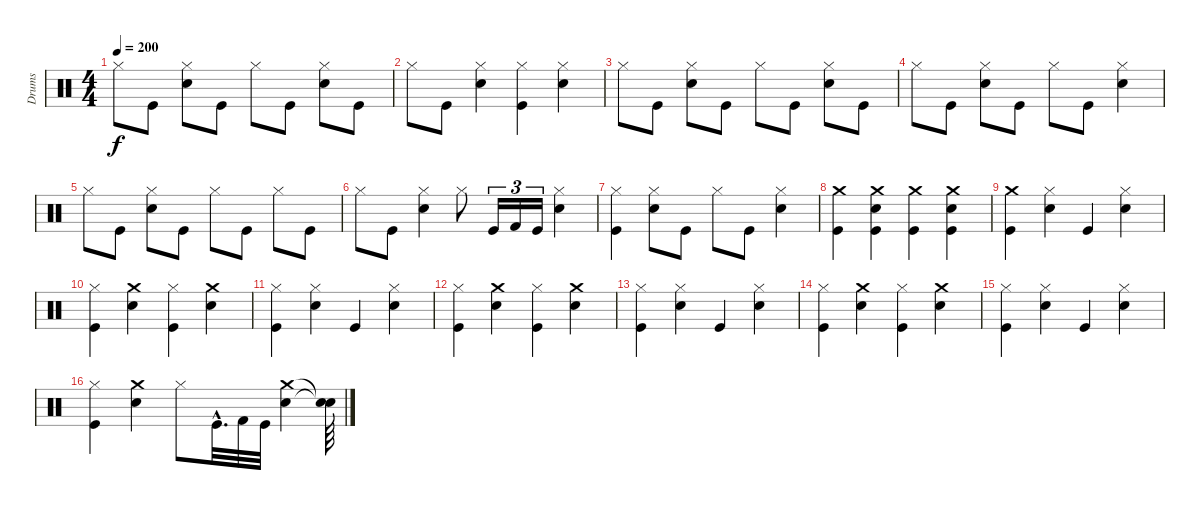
\track ("Drums" "Drums") {instrument percussion}
\staff {score}
\articulation defaults
\ts (4 4)
\tempo 200
\clef neutral
\ks c "Hi-Hat (closed)".8{dy f} "Kick (hit)".8
("Snare (hit) 2" "Hi-Hat (closed)").8 "Kick (hit)".8 "Hi-Hat (closed)".8 "Kick (hit)".8 ("Snare (hit) 2" "Hi-Hat (closed)").8 "Kick (hit)".8 |
"Hi-Hat (closed)".8 "Kick (hit)".8 ("Snare (hit) 2" "Hi-Hat (closed)").4 ("Hi-Hat (closed)" "Kick (hit)").4 ("Snare (hit) 2" "Hi-Hat (closed)").4 |
"Hi-Hat (closed)".8 "Kick (hit)".8 ("Snare (hit) 2" "Hi-Hat (closed)").8 "Kick (hit)".8 "Hi-Hat (closed)".8 "Kick (hit)".8 ("Snare (hit) 2" "Hi-Hat (closed)").8 "Kick (hit)".8 |
"Hi-Hat (closed)".8 "Kick (hit)".8 ("Snare (hit) 2" "Hi-Hat (closed)").8 "Kick (hit)".8 "Hi-Hat (closed)".8 "Kick (hit)".8 ("Snare (hit) 2" "Hi-Hat (closed)").4 |
"Hi-Hat (closed)".8 "Kick (hit)".8 ("Snare (hit) 2" "Hi-Hat (closed)").8 "Kick (hit)".8 "Hi-Hat (closed)".8 "Kick (hit)".8 "Hi-Hat (closed)".8 "Kick (hit)".8 |
"Hi-Hat (closed)".8 "Kick (hit)".8 ("Snare (hit) 2" "Hi-Hat (closed)").4 "Hi-Hat (closed)".8 "Kick (hit)".16{tu (3 2)} "Kick (hit) 2".16{tu (3 2)} "Kick (hit)".16{tu (3 2)} ("Snare (hit) 2" "Hi-Hat (closed)").4 |
("Kick (hit)" "Hi-Hat (closed)").4 ("Snare (hit) 2" "Hi-Hat (closed)").8 "Kick (hit)".8 "Hi-Hat (closed)".8 "Kick (hit)".8 ("Snare (hit) 2" "Hi-Hat (closed)").4 |
("Kick (hit)" "Crash medium (hit)").4 ("Kick (hit)" "Snare (hit) 2" "Crash medium (hit)").4 ("Kick (hit)" "Crash medium (hit)").4 ("Kick (hit)" "Snare (hit) 2" "Crash medium (hit)").4 |
("Crash medium (hit)" "Kick (hit)").4 ("Hi-Hat (closed)" "Snare (hit) 2").4 "Kick (hit)".4 ("Snare (hit) 2" "Hi-Hat (closed)").4 |
("Hi-Hat (closed)" "Kick (hit)").4 ("Crash medium (hit)" "Snare (hit) 2").4 ("Hi-Hat (closed)" "Kick (hit)").4 ("Crash medium (hit)" "Snare (hit) 2").4 |
("Hi-Hat (closed)" "Kick (hit)").4 ("Hi-Hat (closed)" "Snare (hit) 2").4 "Kick (hit)".4 ("Snare (hit) 2" "Hi-Hat (closed)").4 |
("Hi-Hat (closed)" "Kick (hit)").4 ("Crash medium (hit)" "Snare (hit) 2").4 ("Hi-Hat (closed)" "Kick (hit)").4 ("Crash medium (hit)" "Snare (hit) 2").4 |
("Hi-Hat (closed)" "Kick (hit)").4 ("Hi-Hat (closed)" "Snare (hit) 2").4 "Kick (hit)".4 ("Snare (hit) 2" "Hi-Hat (closed)").4 |
("Hi-Hat (closed)" "Kick (hit)").4 ("Crash medium (hit)" "Snare (hit) 2").4 ("Hi-Hat (closed)" "Kick (hit)").4 ("Crash medium (hit)" "Snare (hit) 2").4 |
("Hi-Hat (closed)" "Kick (hit)").4 ("Hi-Hat (closed)" "Snare (hit) 2").4 "Kick (hit)".4 ("Snare (hit) 2" "Hi-Hat (closed)").4 |
("Hi-Hat (closed)" "Kick (hit)").4 ("Crash medium (hit)" "Snare (hit) 2").4 "Hi-Hat (closed)".8 "Kick (hit)"{hac}.32{d} "Kick (hit) 2".32 "Kick (hit)".32 ("Crash medium (hit)" "Snare (hit) 2").4 ("Snare (hit)"{t} "Snare (hit)"{t}).64
